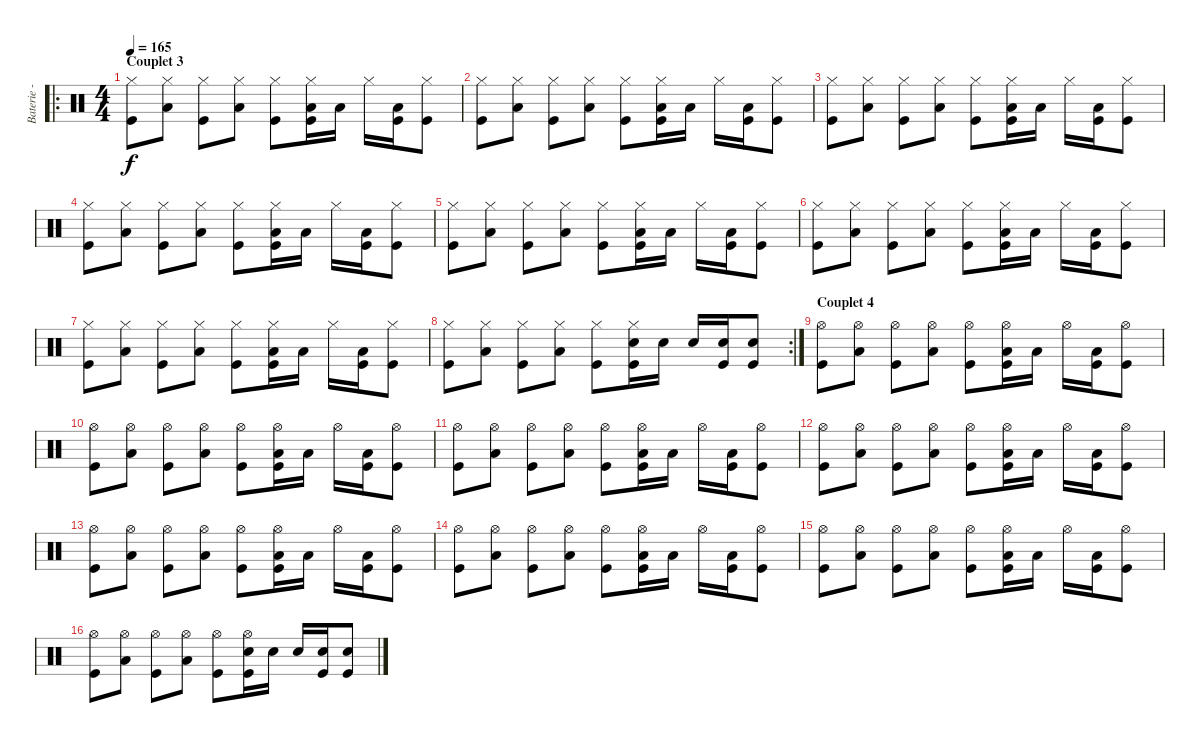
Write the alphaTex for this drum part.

\track ("Baterie - Alex" "Baterie - ") {instrument percussion}
\staff {score}
\articulation defaults
\ro
\ts (4 4)
\section ("" "Couplet 3")
\tempo 165
\clef neutral
\ks c
("Hi-Hat (closed)" "Kick (hit)").8{dy f} ("Hi-Hat (closed)" "Low Tom (hit)").8 ("Hi-Hat (closed)" "Kick (hit)").8 ("Hi-Hat (closed)" "Low Tom (hit)").8 ("Hi-Hat (closed)" "Kick (hit)").8 ("Hi-Hat (closed)" "Low Tom (hit)" "Kick (hit)").16 "Low Tom (hit)".16 "Hi-Hat (closed)".16 ("Low Tom (hit)" "Kick (hit)").16 ("Hi-Hat (closed)" "Kick (hit)").8 |
("Hi-Hat (closed)" "Kick (hit)").8 ("Hi-Hat (closed)" "Low Tom (hit)").8 ("Hi-Hat (closed)" "Kick (hit)").8 ("Hi-Hat (closed)" "Low Tom (hit)").8 ("Hi-Hat (closed)" "Kick (hit)").8 ("Hi-Hat (closed)" "Low Tom (hit)" "Kick (hit)").16 "Low Tom (hit)".16 "Hi-Hat (closed)".16 ("Low Tom (hit)" "Kick (hit)").16 ("Hi-Hat (closed)" "Kick (hit)").8 |
("Hi-Hat (closed)" "Kick (hit)").8 ("Hi-Hat (closed)" "Low Tom (hit)").8 ("Hi-Hat (closed)" "Kick (hit)").8 ("Hi-Hat (closed)" "Low Tom (hit)").8 ("Hi-Hat (closed)" "Kick (hit)").8 ("Hi-Hat (closed)" "Low Tom (hit)" "Kick (hit)").16 "Low Tom (hit)".16 "Hi-Hat (closed)".16 ("Low Tom (hit)" "Kick (hit)").16 ("Hi-Hat (closed)" "Kick (hit)").8 |
("Hi-Hat (closed)" "Kick (hit)").8 ("Hi-Hat (closed)" "Low Tom (hit)").8 ("Hi-Hat (closed)" "Kick (hit)").8 ("Hi-Hat (closed)" "Low Tom (hit)").8 ("Hi-Hat (closed)" "Kick (hit)").8 ("Hi-Hat (closed)" "Low Tom (hit)" "Kick (hit)").16 "Low Tom (hit)".16 "Hi-Hat (closed)".16 ("Low Tom (hit)" "Kick (hit)").16 ("Hi-Hat (closed)" "Kick (hit)").8 |
("Hi-Hat (closed)" "Kick (hit)").8 ("Hi-Hat (closed)" "Low Tom (hit)").8 ("Hi-Hat (closed)" "Kick (hit)").8 ("Hi-Hat (closed)" "Low Tom (hit)").8 ("Hi-Hat (closed)" "Kick (hit)").8 ("Hi-Hat (closed)" "Low Tom (hit)" "Kick (hit)").16 "Low Tom (hit)".16 "Hi-Hat (closed)".16 ("Low Tom (hit)" "Kick (hit)").16 ("Hi-Hat (closed)" "Kick (hit)").8 |
("Hi-Hat (closed)" "Kick (hit)").8 ("Hi-Hat (closed)" "Low Tom (hit)").8 ("Hi-Hat (closed)" "Kick (hit)").8 ("Hi-Hat (closed)" "Low Tom (hit)").8 ("Hi-Hat (closed)" "Kick (hit)").8 ("Hi-Hat (closed)" "Low Tom (hit)" "Kick (hit)").16 "Low Tom (hit)".16 "Hi-Hat (closed)".16 ("Low Tom (hit)" "Kick (hit)").16 ("Hi-Hat (closed)" "Kick (hit)").8 |
("Hi-Hat (closed)" "Kick (hit)").8 ("Hi-Hat (closed)" "Low Tom (hit)").8 ("Hi-Hat (closed)" "Kick (hit)").8 ("Hi-Hat (closed)" "Low Tom (hit)").8 ("Hi-Hat (closed)" "Kick (hit)").8 ("Hi-Hat (closed)" "Low Tom (hit)" "Kick (hit)").16 "Low Tom (hit)".16 "Hi-Hat (closed)".16 ("Low Tom (hit)" "Kick (hit)").16 ("Hi-Hat (closed)" "Kick (hit)").8 |
\rc 2
("Hi-Hat (closed)" "Kick (hit)").8 ("Hi-Hat (closed)" "Low Tom (hit)").8 ("Hi-Hat (closed)" "Kick (hit)").8 ("Hi-Hat (closed)" "Low Tom (hit)").8 ("Hi-Hat (closed)" "Kick (hit)").8 ("Hi-Hat (closed)" "Electric Snare (hit)" "Kick (hit)").16 "Electric Snare (hit)".16 "Electric Snare (hit)".16 ("Electric Snare (hit)" "Kick (hit)").16 ("Electric Snare (hit)" "Kick (hit)").8 |
\section ("" "Couplet 4")
("Hi-Hat (open)" "Kick (hit)").8 ("Hi-Hat (open)" "Low Tom (hit)").8 ("Hi-Hat (open)" "Kick (hit)").8 ("Hi-Hat (open)" "Low Tom (hit)").8 ("Hi-Hat (open)" "Kick (hit)").8 ("Hi-Hat (open)" "Low Tom (hit)" "Kick (hit)").16 "Low Tom (hit)".16 "Hi-Hat (open)".16 ("Low Tom (hit)" "Kick (hit)").16 ("Hi-Hat (open)" "Kick (hit)").8 |
("Hi-Hat (open)" "Kick (hit)").8 ("Hi-Hat (open)" "Low Tom (hit)").8 ("Hi-Hat (open)" "Kick (hit)").8 ("Hi-Hat (open)" "Low Tom (hit)").8 ("Hi-Hat (open)" "Kick (hit)").8 ("Hi-Hat (open)" "Low Tom (hit)" "Kick (hit)").16 "Low Tom (hit)".16 "Hi-Hat (open)".16 ("Low Tom (hit)" "Kick (hit)").16 ("Hi-Hat (open)" "Kick (hit)").8 |
("Hi-Hat (open)" "Kick (hit)").8 ("Hi-Hat (open)" "Low Tom (hit)").8 ("Hi-Hat (open)" "Kick (hit)").8 ("Hi-Hat (open)" "Low Tom (hit)").8 ("Hi-Hat (open)" "Kick (hit)").8 ("Hi-Hat (open)" "Low Tom (hit)" "Kick (hit)").16 "Low Tom (hit)".16 "Hi-Hat (open)".16 ("Low Tom (hit)" "Kick (hit)").16 ("Hi-Hat (open)" "Kick (hit)").8 |
("Hi-Hat (open)" "Kick (hit)").8 ("Hi-Hat (open)" "Low Tom (hit)").8 ("Hi-Hat (open)" "Kick (hit)").8 ("Hi-Hat (open)" "Low Tom (hit)").8 ("Hi-Hat (open)" "Kick (hit)").8 ("Hi-Hat (open)" "Low Tom (hit)" "Kick (hit)").16 "Low Tom (hit)".16 "Hi-Hat (open)".16 ("Low Tom (hit)" "Kick (hit)").16 ("Hi-Hat (open)" "Kick (hit)").8 |
("Hi-Hat (open)" "Kick (hit)").8 ("Hi-Hat (open)" "Low Tom (hit)").8 ("Hi-Hat (open)" "Kick (hit)").8 ("Hi-Hat (open)" "Low Tom (hit)").8 ("Hi-Hat (open)" "Kick (hit)").8 ("Hi-Hat (open)" "Low Tom (hit)" "Kick (hit)").16 "Low Tom (hit)".16 "Hi-Hat (open)".16 ("Low Tom (hit)" "Kick (hit)").16 ("Hi-Hat (open)" "Kick (hit)").8 |
("Hi-Hat (open)" "Kick (hit)").8 ("Hi-Hat (open)" "Low Tom (hit)").8 ("Hi-Hat (open)" "Kick (hit)").8 ("Hi-Hat (open)" "Low Tom (hit)").8 ("Hi-Hat (open)" "Kick (hit)").8 ("Hi-Hat (open)" "Low Tom (hit)" "Kick (hit)").16 "Low Tom (hit)".16 "Hi-Hat (open)".16 ("Low Tom (hit)" "Kick (hit)").16 ("Hi-Hat (open)" "Kick (hit)").8 |
("Hi-Hat (open)" "Kick (hit)").8 ("Hi-Hat (open)" "Low Tom (hit)").8 ("Hi-Hat (open)" "Kick (hit)").8 ("Hi-Hat (open)" "Low Tom (hit)").8 ("Hi-Hat (open)" "Kick (hit)").8 ("Hi-Hat (open)" "Low Tom (hit)" "Kick (hit)").16 "Low Tom (hit)".16 "Hi-Hat (open)".16 ("Low Tom (hit)" "Kick (hit)").16 ("Hi-Hat (open)" "Kick (hit)").8 |
("Hi-Hat (open)" "Kick (hit)").8 ("Hi-Hat (open)" "Low Tom (hit)").8 ("Hi-Hat (open)" "Kick (hit)").8 ("Hi-Hat (open)" "Low Tom (hit)").8 ("Hi-Hat (open)" "Kick (hit)").8 ("Hi-Hat (open)" "Electric Snare (hit)" "Kick (hit)").16 "Electric Snare (hit)".16 "Electric Snare (hit)".16 ("Electric Snare (hit)" "Kick (hit)").16 ("Electric Snare (hit)" "Kick (hit)").8
